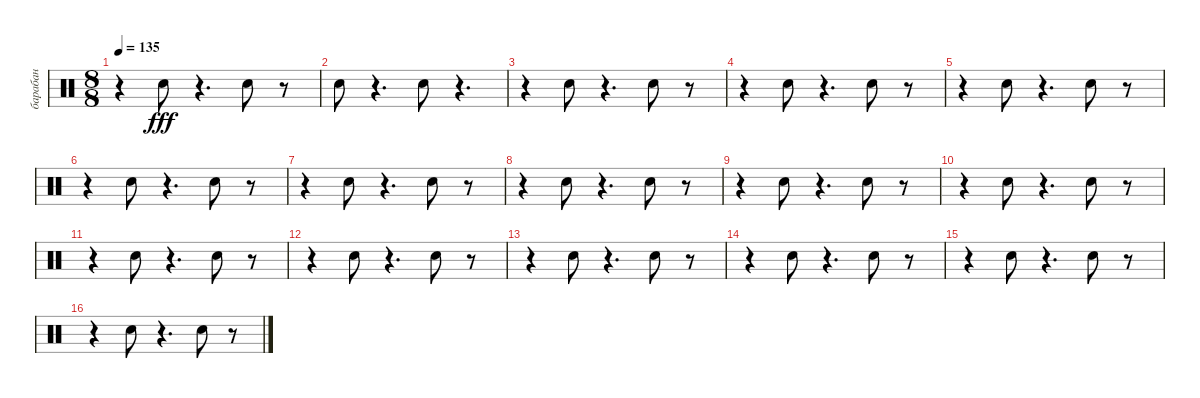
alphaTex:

\track ("барабан" "барабан") {instrument percussion}
\staff {score}
\articulation defaults
\ts (8 8)
\tempo 135
\clef neutral
\ks c
r.4{dy fff} "Snare (hit) 2".8 r.4{d} "Snare (hit) 2".8 r.8 |
"Snare (hit) 2".8 r.4{d} "Snare (hit) 2".8 r.4{d} |
r.4 "Snare (hit) 2".8 r.4{d} "Snare (hit) 2".8 r.8 |
r.4 "Snare (hit) 2".8 r.4{d} "Snare (hit) 2".8 r.8 |
r.4 "Snare (hit) 2".8 r.4{d} "Snare (hit) 2".8 r.8 |
r.4 "Snare (hit) 2".8 r.4{d} "Snare (hit) 2".8 r.8 |
r.4 "Snare (hit) 2".8 r.4{d} "Snare (hit) 2".8 r.8 |
r.4 "Snare (hit) 2".8 r.4{d} "Snare (hit) 2".8 r.8 |
r.4 "Snare (hit) 2".8 r.4{d} "Snare (hit) 2".8 r.8 |
r.4 "Snare (hit) 2".8 r.4{d} "Snare (hit) 2".8 r.8 |
r.4 "Snare (hit) 2".8 r.4{d} "Snare (hit) 2".8 r.8 |
r.4 "Snare (hit) 2".8 r.4{d} "Snare (hit) 2".8 r.8 |
r.4 "Snare (hit) 2".8 r.4{d} "Snare (hit) 2".8 r.8 |
r.4 "Snare (hit) 2".8 r.4{d} "Snare (hit) 2".8 r.8 |
r.4 "Snare (hit) 2".8 r.4{d} "Snare (hit) 2".8 r.8 |
r.4 "Snare (hit) 2".8 r.4{d} "Snare (hit) 2".8 r.8
